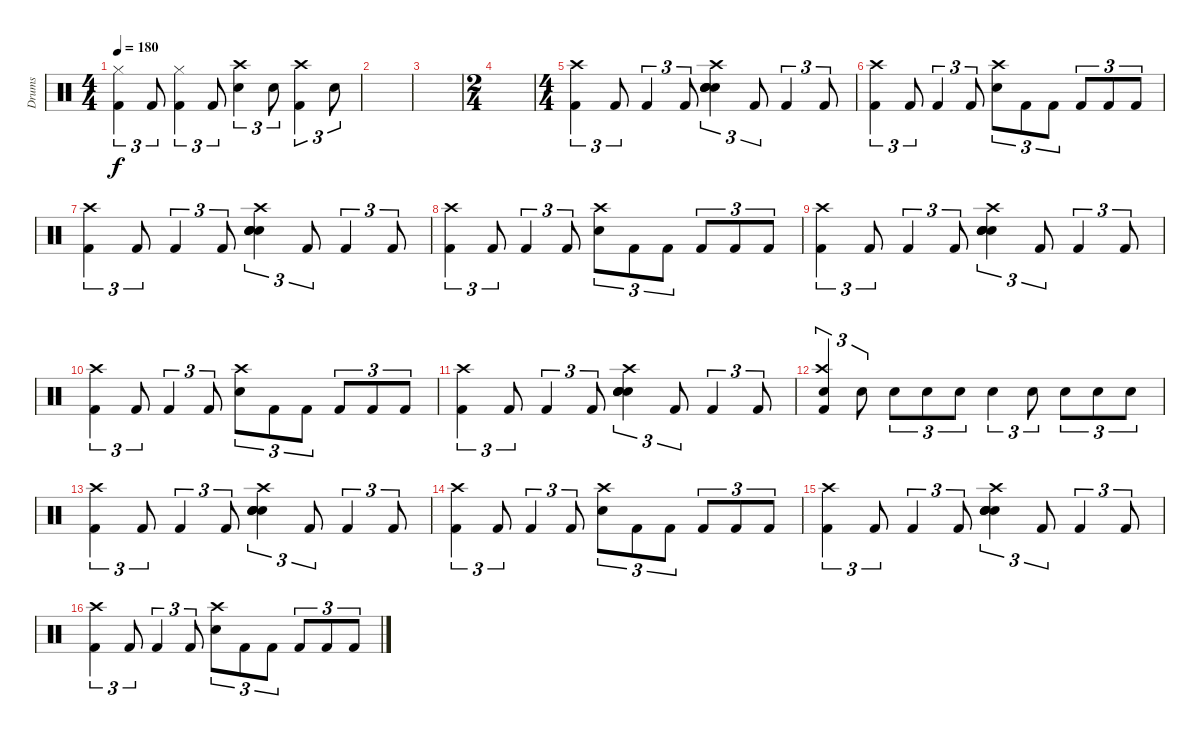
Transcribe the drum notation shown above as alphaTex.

\track ("Drums" "Drums") {instrument percussion}
\staff {score}
\articulation defaults
\ts (4 4)
\tempo 180
\clef neutral
\ks c
("Hi-Hat (closed)" "Kick (hit) 2").4{tu (3 2) dy f} "Kick (hit) 2".8{tu (3 2)} ("Hi-Hat (closed)" "Kick (hit) 2").4{tu (3 2)} "Kick (hit) 2".8{tu (3 2)} ("Crash high (hit)" "Snare (hit) 2").4{tu (3 2)} "Snare (hit) 2".8{tu (3 2)} ("Crash high (hit)" "Kick (hit) 2").4{tu (3 2)} "Snare (hit) 2".8{tu (3 2)} |
|
|
\ts (2 4)
|
\ts (4 4)
("Crash high (hit)" "Kick (hit) 2").4{tu (3 2)} "Kick (hit) 2".8{tu (3 2)} "Kick (hit) 2".4{tu (3 2)} "Kick (hit) 2".8{tu (3 2)} ("Crash high (hit)" "Electric Snare (hit)" "Snare (hit) 2" "Electric Snare (hit)" "Snare (hit) 2").4{tu (3 2)} "Kick (hit) 2".8{tu (3 2)} "Kick (hit) 2".4{tu (3 2)} "Kick (hit) 2".8{tu (3 2)} |
("Crash high (hit)" "Kick (hit) 2").4{tu (3 2)} "Kick (hit) 2".8{tu (3 2)} "Kick (hit) 2".4{tu (3 2)} "Kick (hit) 2".8{tu (3 2)} ("Crash high (hit)" "Snare (hit) 2").8{tu (3 2)} "Kick (hit) 2".8{tu (3 2)} "Kick (hit) 2".8{tu (3 2)} "Kick (hit) 2".8{tu (3 2)} "Kick (hit) 2".8{tu (3 2)} "Kick (hit) 2".8{tu (3 2)} |
("Crash high (hit)" "Kick (hit) 2").4{tu (3 2)} "Kick (hit) 2".8{tu (3 2)} "Kick (hit) 2".4{tu (3 2)} "Kick (hit) 2".8{tu (3 2)} ("Crash high (hit)" "Electric Snare (hit)" "Snare (hit) 2" "Electric Snare (hit)" "Snare (hit) 2").4{tu (3 2)} "Kick (hit) 2".8{tu (3 2)} "Kick (hit) 2".4{tu (3 2)} "Kick (hit) 2".8{tu (3 2)} |
("Crash high (hit)" "Kick (hit) 2").4{tu (3 2)} "Kick (hit) 2".8{tu (3 2)} "Kick (hit) 2".4{tu (3 2)} "Kick (hit) 2".8{tu (3 2)} ("Crash high (hit)" "Snare (hit) 2").8{tu (3 2)} "Kick (hit) 2".8{tu (3 2)} "Kick (hit) 2".8{tu (3 2)} "Kick (hit) 2".8{tu (3 2)} "Kick (hit) 2".8{tu (3 2)} "Kick (hit) 2".8{tu (3 2)} |
("Crash high (hit)" "Kick (hit) 2").4{tu (3 2)} "Kick (hit) 2".8{tu (3 2)} "Kick (hit) 2".4{tu (3 2)} "Kick (hit) 2".8{tu (3 2)} ("Crash high (hit)" "Electric Snare (hit)" "Snare (hit) 2" "Electric Snare (hit)" "Snare (hit) 2").4{tu (3 2)} "Kick (hit) 2".8{tu (3 2)} "Kick (hit) 2".4{tu (3 2)} "Kick (hit) 2".8{tu (3 2)} |
("Crash high (hit)" "Kick (hit) 2").4{tu (3 2)} "Kick (hit) 2".8{tu (3 2)} "Kick (hit) 2".4{tu (3 2)} "Kick (hit) 2".8{tu (3 2)} ("Crash high (hit)" "Snare (hit) 2").8{tu (3 2)} "Kick (hit) 2".8{tu (3 2)} "Kick (hit) 2".8{tu (3 2)} "Kick (hit) 2".8{tu (3 2)} "Kick (hit) 2".8{tu (3 2)} "Kick (hit) 2".8{tu (3 2)} |
("Crash high (hit)" "Kick (hit) 2").4{tu (3 2)} "Kick (hit) 2".8{tu (3 2)} "Kick (hit) 2".4{tu (3 2)} "Kick (hit) 2".8{tu (3 2)} ("Crash high (hit)" "Electric Snare (hit)" "Snare (hit) 2" "Electric Snare (hit)" "Snare (hit) 2").4{tu (3 2)} "Kick (hit) 2".8{tu (3 2)} "Kick (hit) 2".4{tu (3 2)} "Kick (hit) 2".8{tu (3 2)} |
("Crash high (hit)" "Snare (hit) 2" "Kick (hit) 2").4{tu (3 2)} "Snare (hit) 2".8{tu (3 2)} "Snare (hit) 2".8{tu (3 2)} "Snare (hit) 2".8{tu (3 2)} "Snare (hit) 2".8{tu (3 2)} "Snare (hit) 2".4{tu (3 2)} "Snare (hit) 2".8{tu (3 2)} "Snare (hit) 2".8{tu (3 2)} "Snare (hit) 2".8{tu (3 2)} "Snare (hit) 2".8{tu (3 2)} |
("Crash high (hit)" "Kick (hit) 2").4{tu (3 2)} "Kick (hit) 2".8{tu (3 2)} "Kick (hit) 2".4{tu (3 2)} "Kick (hit) 2".8{tu (3 2)} ("Crash high (hit)" "Electric Snare (hit)" "Snare (hit) 2" "Electric Snare (hit)" "Snare (hit) 2").4{tu (3 2)} "Kick (hit) 2".8{tu (3 2)} "Kick (hit) 2".4{tu (3 2)} "Kick (hit) 2".8{tu (3 2)} |
("Crash high (hit)" "Kick (hit) 2").4{tu (3 2)} "Kick (hit) 2".8{tu (3 2)} "Kick (hit) 2".4{tu (3 2)} "Kick (hit) 2".8{tu (3 2)} ("Crash high (hit)" "Snare (hit) 2").8{tu (3 2)} "Kick (hit) 2".8{tu (3 2)} "Kick (hit) 2".8{tu (3 2)} "Kick (hit) 2".8{tu (3 2)} "Kick (hit) 2".8{tu (3 2)} "Kick (hit) 2".8{tu (3 2)} |
("Crash high (hit)" "Kick (hit) 2").4{tu (3 2)} "Kick (hit) 2".8{tu (3 2)} "Kick (hit) 2".4{tu (3 2)} "Kick (hit) 2".8{tu (3 2)} ("Crash high (hit)" "Electric Snare (hit)" "Snare (hit) 2" "Electric Snare (hit)" "Snare (hit) 2").4{tu (3 2)} "Kick (hit) 2".8{tu (3 2)} "Kick (hit) 2".4{tu (3 2)} "Kick (hit) 2".8{tu (3 2)} |
("Crash high (hit)" "Kick (hit) 2").4{tu (3 2)} "Kick (hit) 2".8{tu (3 2)} "Kick (hit) 2".4{tu (3 2)} "Kick (hit) 2".8{tu (3 2)} ("Crash high (hit)" "Snare (hit) 2").8{tu (3 2)} "Kick (hit) 2".8{tu (3 2)} "Kick (hit) 2".8{tu (3 2)} "Kick (hit) 2".8{tu (3 2)} "Kick (hit) 2".8{tu (3 2)} "Kick (hit) 2".8{tu (3 2)}
